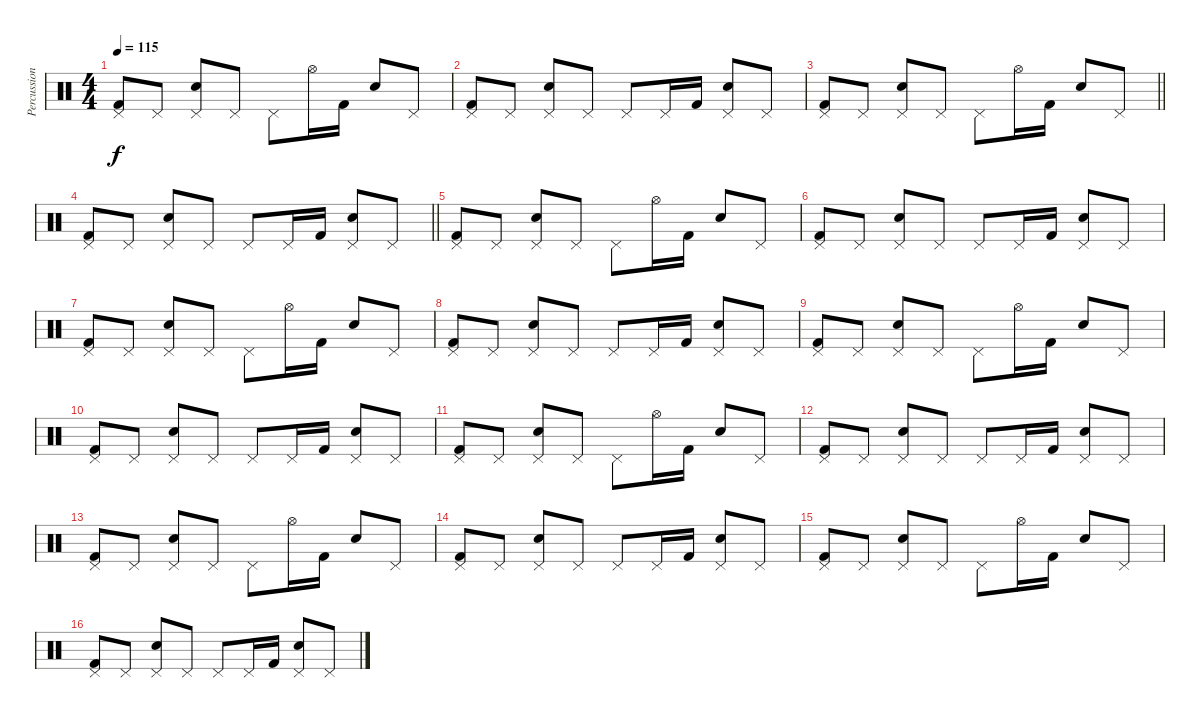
\track ("Percussions" "Percussion") {instrument percussion}
\staff {score}
\articulation defaults
\ts (4 4)
\tempo 115
\clef neutral
\ks c
("Pedal Hi-Hat (hit)" "Kick (hit) 2").8{dy f} "Pedal Hi-Hat (hit)".8 ("Pedal Hi-Hat (hit)" "Snare (hit) 2").8 "Pedal Hi-Hat (hit)".8 "Pedal Hi-Hat (hit)".8 "Hi-Hat (open)".16 "Kick (hit) 2".16 "Snare (hit) 2".8 "Pedal Hi-Hat (hit)".8 |
("Pedal Hi-Hat (hit)" "Kick (hit) 2").8 "Pedal Hi-Hat (hit)".8 ("Pedal Hi-Hat (hit)" "Snare (hit) 2").8 "Pedal Hi-Hat (hit)".8 "Pedal Hi-Hat (hit)".8 "Pedal Hi-Hat (hit)".16 "Kick (hit) 2".16 ("Pedal Hi-Hat (hit)" "Snare (hit) 2").8 "Pedal Hi-Hat (hit)".8 |
\barLineRight lightlight
("Pedal Hi-Hat (hit)" "Kick (hit) 2").8 "Pedal Hi-Hat (hit)".8 ("Pedal Hi-Hat (hit)" "Snare (hit) 2").8 "Pedal Hi-Hat (hit)".8 "Pedal Hi-Hat (hit)".8 "Hi-Hat (open)".16 "Kick (hit) 2".16 "Snare (hit) 2".8 "Pedal Hi-Hat (hit)".8 |
\barLineRight lightlight
("Pedal Hi-Hat (hit)" "Kick (hit) 2").8 "Pedal Hi-Hat (hit)".8 ("Pedal Hi-Hat (hit)" "Snare (hit) 2").8 "Pedal Hi-Hat (hit)".8 "Pedal Hi-Hat (hit)".8 "Pedal Hi-Hat (hit)".16 "Kick (hit) 2".16 ("Pedal Hi-Hat (hit)" "Snare (hit) 2").8 "Pedal Hi-Hat (hit)".8 |
("Pedal Hi-Hat (hit)" "Kick (hit) 2").8 "Pedal Hi-Hat (hit)".8 ("Pedal Hi-Hat (hit)" "Snare (hit) 2").8 "Pedal Hi-Hat (hit)".8 "Pedal Hi-Hat (hit)".8 "Hi-Hat (open)".16 "Kick (hit) 2".16 "Snare (hit) 2".8 "Pedal Hi-Hat (hit)".8 |
("Pedal Hi-Hat (hit)" "Kick (hit) 2").8 "Pedal Hi-Hat (hit)".8 ("Pedal Hi-Hat (hit)" "Snare (hit) 2").8 "Pedal Hi-Hat (hit)".8 "Pedal Hi-Hat (hit)".8 "Pedal Hi-Hat (hit)".16 "Kick (hit) 2".16 ("Pedal Hi-Hat (hit)" "Snare (hit) 2").8 "Pedal Hi-Hat (hit)".8 |
("Pedal Hi-Hat (hit)" "Kick (hit) 2").8 "Pedal Hi-Hat (hit)".8 ("Pedal Hi-Hat (hit)" "Snare (hit) 2").8 "Pedal Hi-Hat (hit)".8 "Pedal Hi-Hat (hit)".8 "Hi-Hat (open)".16 "Kick (hit) 2".16 "Snare (hit) 2".8 "Pedal Hi-Hat (hit)".8 |
("Pedal Hi-Hat (hit)" "Kick (hit) 2").8 "Pedal Hi-Hat (hit)".8 ("Pedal Hi-Hat (hit)" "Snare (hit) 2").8 "Pedal Hi-Hat (hit)".8 "Pedal Hi-Hat (hit)".8 "Pedal Hi-Hat (hit)".16 "Kick (hit) 2".16 ("Pedal Hi-Hat (hit)" "Snare (hit) 2").8 "Pedal Hi-Hat (hit)".8 |
("Pedal Hi-Hat (hit)" "Kick (hit) 2").8 "Pedal Hi-Hat (hit)".8 ("Pedal Hi-Hat (hit)" "Snare (hit) 2").8 "Pedal Hi-Hat (hit)".8 "Pedal Hi-Hat (hit)".8 "Hi-Hat (open)".16 "Kick (hit) 2".16 "Snare (hit) 2".8 "Pedal Hi-Hat (hit)".8 |
("Pedal Hi-Hat (hit)" "Kick (hit) 2").8 "Pedal Hi-Hat (hit)".8 ("Pedal Hi-Hat (hit)" "Snare (hit) 2").8 "Pedal Hi-Hat (hit)".8 "Pedal Hi-Hat (hit)".8 "Pedal Hi-Hat (hit)".16 "Kick (hit) 2".16 ("Pedal Hi-Hat (hit)" "Snare (hit) 2").8 "Pedal Hi-Hat (hit)".8 |
("Pedal Hi-Hat (hit)" "Kick (hit) 2").8 "Pedal Hi-Hat (hit)".8 ("Pedal Hi-Hat (hit)" "Snare (hit) 2").8 "Pedal Hi-Hat (hit)".8 "Pedal Hi-Hat (hit)".8 "Hi-Hat (open)".16 "Kick (hit) 2".16 "Snare (hit) 2".8 "Pedal Hi-Hat (hit)".8 |
("Pedal Hi-Hat (hit)" "Kick (hit) 2").8 "Pedal Hi-Hat (hit)".8 ("Pedal Hi-Hat (hit)" "Snare (hit) 2").8 "Pedal Hi-Hat (hit)".8 "Pedal Hi-Hat (hit)".8 "Pedal Hi-Hat (hit)".16 "Kick (hit) 2".16 ("Pedal Hi-Hat (hit)" "Snare (hit) 2").8 "Pedal Hi-Hat (hit)".8 |
("Pedal Hi-Hat (hit)" "Kick (hit) 2").8 "Pedal Hi-Hat (hit)".8 ("Pedal Hi-Hat (hit)" "Snare (hit) 2").8 "Pedal Hi-Hat (hit)".8 "Pedal Hi-Hat (hit)".8 "Hi-Hat (open)".16 "Kick (hit) 2".16 "Snare (hit) 2".8 "Pedal Hi-Hat (hit)".8 |
("Pedal Hi-Hat (hit)" "Kick (hit) 2").8 "Pedal Hi-Hat (hit)".8 ("Pedal Hi-Hat (hit)" "Snare (hit) 2").8 "Pedal Hi-Hat (hit)".8 "Pedal Hi-Hat (hit)".8 "Pedal Hi-Hat (hit)".16 "Kick (hit) 2".16 ("Pedal Hi-Hat (hit)" "Snare (hit) 2").8 "Pedal Hi-Hat (hit)".8 |
("Pedal Hi-Hat (hit)" "Kick (hit) 2").8 "Pedal Hi-Hat (hit)".8 ("Pedal Hi-Hat (hit)" "Snare (hit) 2").8 "Pedal Hi-Hat (hit)".8 "Pedal Hi-Hat (hit)".8 "Hi-Hat (open)".16 "Kick (hit) 2".16 "Snare (hit) 2".8 "Pedal Hi-Hat (hit)".8 |
("Pedal Hi-Hat (hit)" "Kick (hit) 2").8 "Pedal Hi-Hat (hit)".8 ("Pedal Hi-Hat (hit)" "Snare (hit) 2").8 "Pedal Hi-Hat (hit)".8 "Pedal Hi-Hat (hit)".8 "Pedal Hi-Hat (hit)".16 "Kick (hit) 2".16 ("Pedal Hi-Hat (hit)" "Snare (hit) 2").8 "Pedal Hi-Hat (hit)".8
